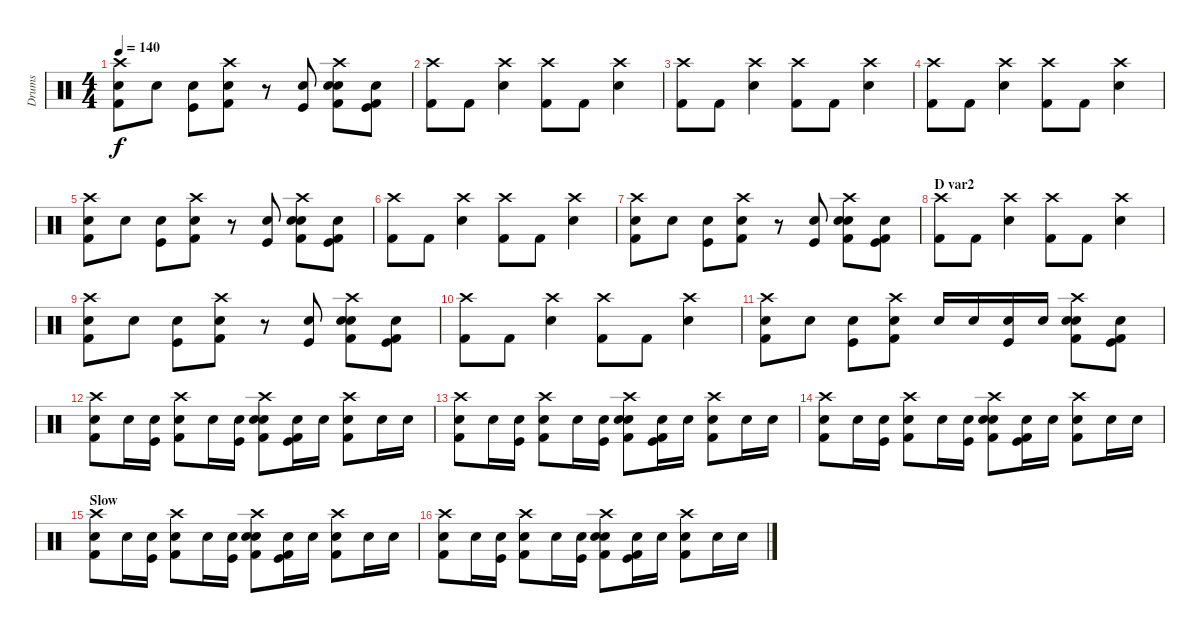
\track ("Drums" "Drums") {instrument percussion}
\staff {score}
\articulation defaults
\ts (4 4)
\tempo 140
\clef neutral
\ks c
("Crash high (hit)" "Electric Snare (hit)" "Kick (hit) 2").8{dy f} "Electric Snare (hit)".8 ("Kick (hit)" "Electric Snare (hit)").8 ("Crash high (hit)" "Electric Snare (hit)" "Kick (hit) 2").8 r.8 ("Kick (hit)" "Electric Snare (hit)").8 ("Crash high (hit)" "Electric Snare (hit)" "Snare (hit) 2" "Kick (hit) 2").8 ("Electric Snare (hit)" "Kick (hit)" "Kick (hit) 2").8 |
("Crash high (hit)" "Kick (hit) 2").8 "Kick (hit) 2".8 ("Crash high (hit)" "Electric Snare (hit)").4 ("Crash high (hit)" "Kick (hit) 2").8 "Kick (hit) 2".8 ("Crash high (hit)" "Electric Snare (hit)").4 |
("Crash high (hit)" "Kick (hit) 2").8 "Kick (hit) 2".8 ("Crash high (hit)" "Electric Snare (hit)").4 ("Crash high (hit)" "Kick (hit) 2").8 "Kick (hit) 2".8 ("Crash high (hit)" "Electric Snare (hit)").4 |
("Crash high (hit)" "Kick (hit) 2").8 "Kick (hit) 2".8 ("Crash high (hit)" "Electric Snare (hit)").4 ("Crash high (hit)" "Kick (hit) 2").8 "Kick (hit) 2".8 ("Crash high (hit)" "Electric Snare (hit)").4 |
("Crash high (hit)" "Electric Snare (hit)" "Kick (hit) 2").8 "Electric Snare (hit)".8 ("Kick (hit)" "Electric Snare (hit)").8 ("Crash high (hit)" "Electric Snare (hit)" "Kick (hit) 2").8 r.8 ("Kick (hit)" "Electric Snare (hit)").8 ("Crash high (hit)" "Electric Snare (hit)" "Snare (hit) 2" "Kick (hit) 2").8 ("Electric Snare (hit)" "Kick (hit)" "Kick (hit) 2").8 |
("Crash high (hit)" "Kick (hit) 2").8 "Kick (hit) 2".8 ("Crash high (hit)" "Electric Snare (hit)").4 ("Crash high (hit)" "Kick (hit) 2").8 "Kick (hit) 2".8 ("Crash high (hit)" "Electric Snare (hit)").4 |
("Crash high (hit)" "Electric Snare (hit)" "Kick (hit) 2").8 "Electric Snare (hit)".8 ("Kick (hit)" "Electric Snare (hit)").8 ("Crash high (hit)" "Electric Snare (hit)" "Kick (hit) 2").8 r.8 ("Kick (hit)" "Electric Snare (hit)").8 ("Crash high (hit)" "Electric Snare (hit)" "Snare (hit) 2" "Kick (hit) 2").8 ("Electric Snare (hit)" "Kick (hit)" "Kick (hit) 2").8 |
\section ("" "D var2")
("Crash high (hit)" "Kick (hit) 2").8 "Kick (hit) 2".8 ("Crash high (hit)" "Electric Snare (hit)").4 ("Crash high (hit)" "Kick (hit) 2").8 "Kick (hit) 2".8 ("Crash high (hit)" "Electric Snare (hit)").4 |
("Crash high (hit)" "Electric Snare (hit)" "Kick (hit) 2").8 "Electric Snare (hit)".8 ("Kick (hit)" "Electric Snare (hit)").8 ("Crash high (hit)" "Electric Snare (hit)" "Kick (hit) 2").8 r.8 ("Kick (hit)" "Electric Snare (hit)").8 ("Crash high (hit)" "Electric Snare (hit)" "Snare (hit) 2" "Kick (hit) 2").8 ("Electric Snare (hit)" "Kick (hit)" "Kick (hit) 2").8 |
("Crash high (hit)" "Kick (hit) 2").8 "Kick (hit) 2".8 ("Crash high (hit)" "Electric Snare (hit)").4 ("Crash high (hit)" "Kick (hit) 2").8 "Kick (hit) 2".8 ("Crash high (hit)" "Electric Snare (hit)").4 |
("Crash high (hit)" "Electric Snare (hit)" "Kick (hit) 2").8 "Electric Snare (hit)".8 ("Kick (hit)" "Electric Snare (hit)").8 ("Crash high (hit)" "Electric Snare (hit)" "Kick (hit) 2").8 "Electric Snare (hit)".16 "Electric Snare (hit)".16 ("Kick (hit)" "Electric Snare (hit)").16 "Electric Snare (hit)".16 ("Crash high (hit)" "Electric Snare (hit)" "Snare (hit) 2" "Kick (hit) 2").8 ("Electric Snare (hit)" "Kick (hit)" "Kick (hit) 2").8 |
("Crash high (hit)" "Electric Snare (hit)" "Kick (hit) 2").8 "Electric Snare (hit)".16 ("Kick (hit)" "Electric Snare (hit)").16 ("Crash high (hit)" "Electric Snare (hit)" "Kick (hit) 2").8 "Electric Snare (hit)".16 ("Kick (hit)" "Electric Snare (hit)").16 ("Crash high (hit)" "Electric Snare (hit)" "Snare (hit) 2" "Kick (hit) 2").8 ("Electric Snare (hit)" "Kick (hit)" "Kick (hit) 2").16 "Electric Snare (hit)".16 ("Crash high (hit)" "Electric Snare (hit)" "Kick (hit) 2").8 "Electric Snare (hit)".16 "Electric Snare (hit)".16 |
("Crash high (hit)" "Electric Snare (hit)" "Kick (hit) 2").8 "Electric Snare (hit)".16 ("Kick (hit)" "Electric Snare (hit)").16 ("Crash high (hit)" "Electric Snare (hit)" "Kick (hit) 2").8 "Electric Snare (hit)".16 ("Kick (hit)" "Electric Snare (hit)").16 ("Crash high (hit)" "Electric Snare (hit)" "Snare (hit) 2" "Kick (hit) 2").8 ("Electric Snare (hit)" "Kick (hit)" "Kick (hit) 2").16 "Electric Snare (hit)".16 ("Crash high (hit)" "Electric Snare (hit)" "Kick (hit) 2").8 "Electric Snare (hit)".16 "Electric Snare (hit)".16 |
("Crash high (hit)" "Electric Snare (hit)" "Kick (hit) 2").8 "Electric Snare (hit)".16 ("Kick (hit)" "Electric Snare (hit)").16 ("Crash high (hit)" "Electric Snare (hit)" "Kick (hit) 2").8 "Electric Snare (hit)".16 ("Kick (hit)" "Electric Snare (hit)").16 ("Crash high (hit)" "Electric Snare (hit)" "Snare (hit) 2" "Kick (hit) 2").8 ("Electric Snare (hit)" "Kick (hit)" "Kick (hit) 2").16 "Electric Snare (hit)".16 ("Crash high (hit)" "Electric Snare (hit)" "Kick (hit) 2").8 "Electric Snare (hit)".16 "Electric Snare (hit)".16 |
\section ("" "Slow")
("Crash high (hit)" "Electric Snare (hit)" "Kick (hit) 2").8 "Electric Snare (hit)".16 ("Kick (hit)" "Electric Snare (hit)").16 ("Crash high (hit)" "Electric Snare (hit)" "Kick (hit) 2").8 "Electric Snare (hit)".16 ("Kick (hit)" "Electric Snare (hit)").16 ("Crash high (hit)" "Electric Snare (hit)" "Snare (hit) 2" "Kick (hit) 2").8 ("Electric Snare (hit)" "Kick (hit)" "Kick (hit) 2").16 "Electric Snare (hit)".16 ("Crash high (hit)" "Electric Snare (hit)" "Kick (hit) 2").8 "Electric Snare (hit)".16 "Electric Snare (hit)".16 |
("Crash high (hit)" "Electric Snare (hit)" "Kick (hit) 2").8 "Electric Snare (hit)".16 ("Kick (hit)" "Electric Snare (hit)").16 ("Crash high (hit)" "Electric Snare (hit)" "Kick (hit) 2").8 "Electric Snare (hit)".16 ("Kick (hit)" "Electric Snare (hit)").16 ("Crash high (hit)" "Electric Snare (hit)" "Snare (hit) 2" "Kick (hit) 2").8 ("Electric Snare (hit)" "Kick (hit)" "Kick (hit) 2").16 "Electric Snare (hit)".16 ("Crash high (hit)" "Electric Snare (hit)" "Kick (hit) 2").8 "Electric Snare (hit)".16 "Electric Snare (hit)".16
